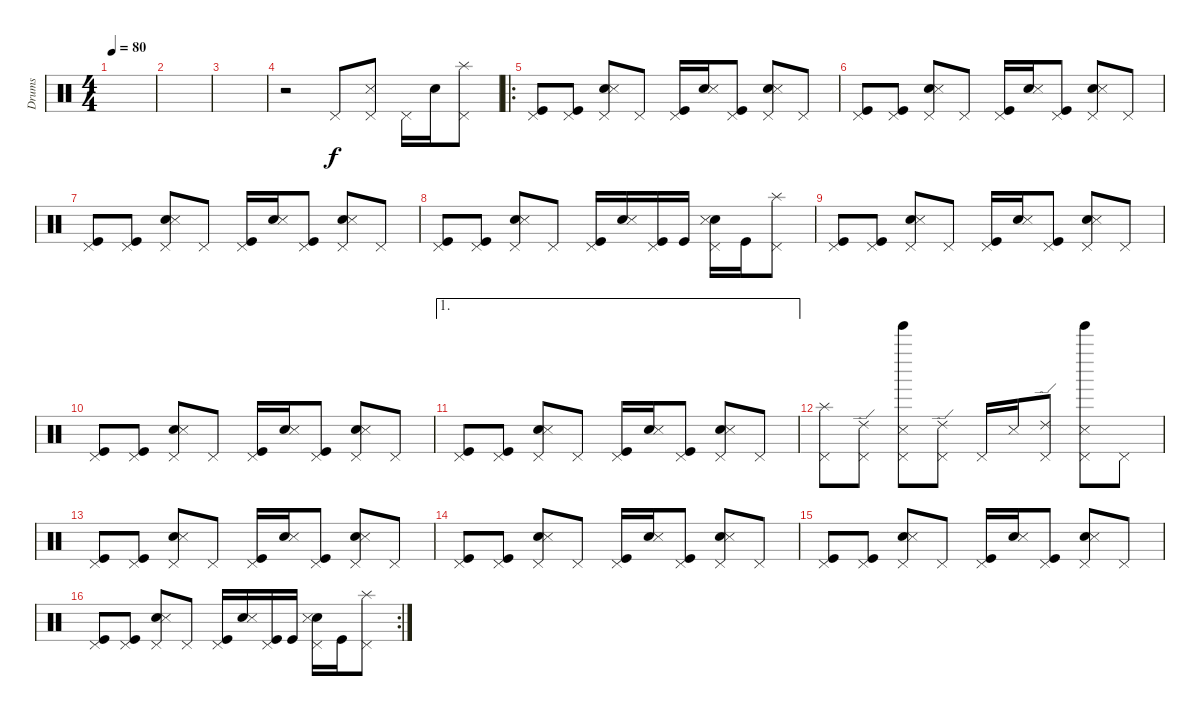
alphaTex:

\track ("Drums" "Drums") {instrument percussion}
\staff {score}
\articulation defaults
\ts (4 4)
\tempo 80
\clef neutral
\ks c
|
|
|
r.2 "Pedal Hi-Hat (hit)".8 ("Pedal Hi-Hat (hit)" "Metronome (hit)").8 "Pedal Hi-Hat (hit)".16 "Metronome (bell)".16 ("Pedal Hi-Hat (hit)" "Splash (hit)").8 |
\ro
("Pedal Hi-Hat (hit)" "Kick (hit)").8 ("Pedal Hi-Hat (hit)" "Kick (hit)").8 ("Pedal Hi-Hat (hit)" "Electric Snare (hit)" "Metronome (hit)").8 "Pedal Hi-Hat (hit)".8 ("Pedal Hi-Hat (hit)" "Kick (hit)").16 ("Snare (hit) 2" "Metronome (hit)").16 ("Pedal Hi-Hat (hit)" "Kick (hit)").8 ("Pedal Hi-Hat (hit)" "Electric Snare (hit)" "Metronome (hit)").8 "Pedal Hi-Hat (hit)".8 |
("Pedal Hi-Hat (hit)" "Kick (hit)").8 ("Pedal Hi-Hat (hit)" "Kick (hit)").8 ("Pedal Hi-Hat (hit)" "Electric Snare (hit)" "Metronome (hit)").8 "Pedal Hi-Hat (hit)".8 ("Pedal Hi-Hat (hit)" "Kick (hit)").16 ("Snare (hit) 2" "Metronome (hit)").16 ("Pedal Hi-Hat (hit)" "Kick (hit)").8 ("Pedal Hi-Hat (hit)" "Electric Snare (hit)" "Metronome (hit)").8 "Pedal Hi-Hat (hit)".8 |
("Pedal Hi-Hat (hit)" "Kick (hit)").8 ("Pedal Hi-Hat (hit)" "Kick (hit)").8 ("Pedal Hi-Hat (hit)" "Electric Snare (hit)" "Metronome (hit)").8 "Pedal Hi-Hat (hit)".8 ("Pedal Hi-Hat (hit)" "Kick (hit)").16 ("Snare (hit) 2" "Metronome (hit)").16 ("Pedal Hi-Hat (hit)" "Kick (hit)").8 ("Pedal Hi-Hat (hit)" "Electric Snare (hit)" "Metronome (hit)").8 "Pedal Hi-Hat (hit)".8 |
("Pedal Hi-Hat (hit)" "Kick (hit)").8 ("Pedal Hi-Hat (hit)" "Kick (hit)").8 ("Pedal Hi-Hat (hit)" "Snare (hit) 2" "Metronome (hit)").8 "Pedal Hi-Hat (hit)".8 ("Pedal Hi-Hat (hit)" "Kick (hit)").16 ("Snare (hit) 2" "Metronome (hit)").16 ("Pedal Hi-Hat (hit)" "Kick (hit)").16 "Kick (hit)".16 ("Pedal Hi-Hat (hit)" "Snare (hit) 2" "Metronome (hit)").16 "Kick (hit)".16 ("Pedal Hi-Hat (hit)" "Splash (hit)").8 |
("Pedal Hi-Hat (hit)" "Kick (hit)").8 ("Pedal Hi-Hat (hit)" "Kick (hit)").8 ("Pedal Hi-Hat (hit)" "Electric Snare (hit)" "Metronome (hit)").8 "Pedal Hi-Hat (hit)".8 ("Pedal Hi-Hat (hit)" "Kick (hit)").16 ("Snare (hit) 2" "Metronome (hit)").16 ("Pedal Hi-Hat (hit)" "Kick (hit)").8 ("Pedal Hi-Hat (hit)" "Electric Snare (hit)" "Metronome (hit)").8 "Pedal Hi-Hat (hit)".8 |
("Pedal Hi-Hat (hit)" "Kick (hit)").8 ("Pedal Hi-Hat (hit)" "Kick (hit)").8 ("Pedal Hi-Hat (hit)" "Electric Snare (hit)" "Metronome (hit)").8 "Pedal Hi-Hat (hit)".8 ("Pedal Hi-Hat (hit)" "Kick (hit)").16 ("Snare (hit) 2" "Metronome (hit)").16 ("Pedal Hi-Hat (hit)" "Kick (hit)").8 ("Pedal Hi-Hat (hit)" "Electric Snare (hit)" "Metronome (hit)").8 "Pedal Hi-Hat (hit)".8 |
\ae 1
("Pedal Hi-Hat (hit)" "Kick (hit)").8 ("Pedal Hi-Hat (hit)" "Kick (hit)").8 ("Pedal Hi-Hat (hit)" "Electric Snare (hit)" "Metronome (hit)").8 "Pedal Hi-Hat (hit)".8 ("Pedal Hi-Hat (hit)" "Kick (hit)").16 ("Snare (hit) 2" "Metronome (hit)").16 ("Pedal Hi-Hat (hit)" "Kick (hit)").8 ("Pedal Hi-Hat (hit)" "Electric Snare (hit)" "Metronome (hit)").8 "Pedal Hi-Hat (hit)".8 |
("Pedal Hi-Hat (hit)" "Splash (hit)").8 ("Pedal Hi-Hat (hit)" "Ride (edge) 2").8 ("Pedal Hi-Hat (hit)" "Metronome (hit)" "Tinkle Bell (hit)").8 ("Pedal Hi-Hat (hit)" "Ride (edge) 2").8 "Pedal Hi-Hat (hit)".16 "Metronome (hit)".16 ("Pedal Hi-Hat (hit)" "Ride (edge) 2").8 ("Pedal Hi-Hat (hit)" "Metronome (hit)" "Tinkle Bell (hit)").8 "Pedal Hi-Hat (hit)".8 |
("Pedal Hi-Hat (hit)" "Kick (hit)").8 ("Pedal Hi-Hat (hit)" "Kick (hit)").8 ("Pedal Hi-Hat (hit)" "Electric Snare (hit)" "Metronome (hit)").8 "Pedal Hi-Hat (hit)".8 ("Pedal Hi-Hat (hit)" "Kick (hit)").16 ("Snare (hit) 2" "Metronome (hit)").16 ("Pedal Hi-Hat (hit)" "Kick (hit)").8 ("Pedal Hi-Hat (hit)" "Electric Snare (hit)" "Metronome (hit)").8 "Pedal Hi-Hat (hit)".8 |
("Pedal Hi-Hat (hit)" "Kick (hit)").8 ("Pedal Hi-Hat (hit)" "Kick (hit)").8 ("Pedal Hi-Hat (hit)" "Electric Snare (hit)" "Metronome (hit)").8 "Pedal Hi-Hat (hit)".8 ("Pedal Hi-Hat (hit)" "Kick (hit)").16 ("Snare (hit) 2" "Metronome (hit)").16 ("Pedal Hi-Hat (hit)" "Kick (hit)").8 ("Pedal Hi-Hat (hit)" "Electric Snare (hit)" "Metronome (hit)").8 "Pedal Hi-Hat (hit)".8 |
("Pedal Hi-Hat (hit)" "Kick (hit)").8 ("Pedal Hi-Hat (hit)" "Kick (hit)").8 ("Pedal Hi-Hat (hit)" "Electric Snare (hit)" "Metronome (hit)").8 "Pedal Hi-Hat (hit)".8 ("Pedal Hi-Hat (hit)" "Kick (hit)").16 ("Snare (hit) 2" "Metronome (hit)").16 ("Pedal Hi-Hat (hit)" "Kick (hit)").8 ("Pedal Hi-Hat (hit)" "Electric Snare (hit)" "Metronome (hit)").8 "Pedal Hi-Hat (hit)".8 |
\rc 2
("Pedal Hi-Hat (hit)" "Kick (hit)").8 ("Pedal Hi-Hat (hit)" "Kick (hit)").8 ("Pedal Hi-Hat (hit)" "Snare (hit) 2" "Metronome (hit)").8 "Pedal Hi-Hat (hit)".8 ("Pedal Hi-Hat (hit)" "Kick (hit)").16 ("Snare (hit) 2" "Metronome (hit)").16 ("Pedal Hi-Hat (hit)" "Kick (hit)").16 "Kick (hit)".16 ("Pedal Hi-Hat (hit)" "Snare (hit) 2" "Metronome (hit)").16 "Kick (hit)".16 ("Pedal Hi-Hat (hit)" "Splash (hit)").8
